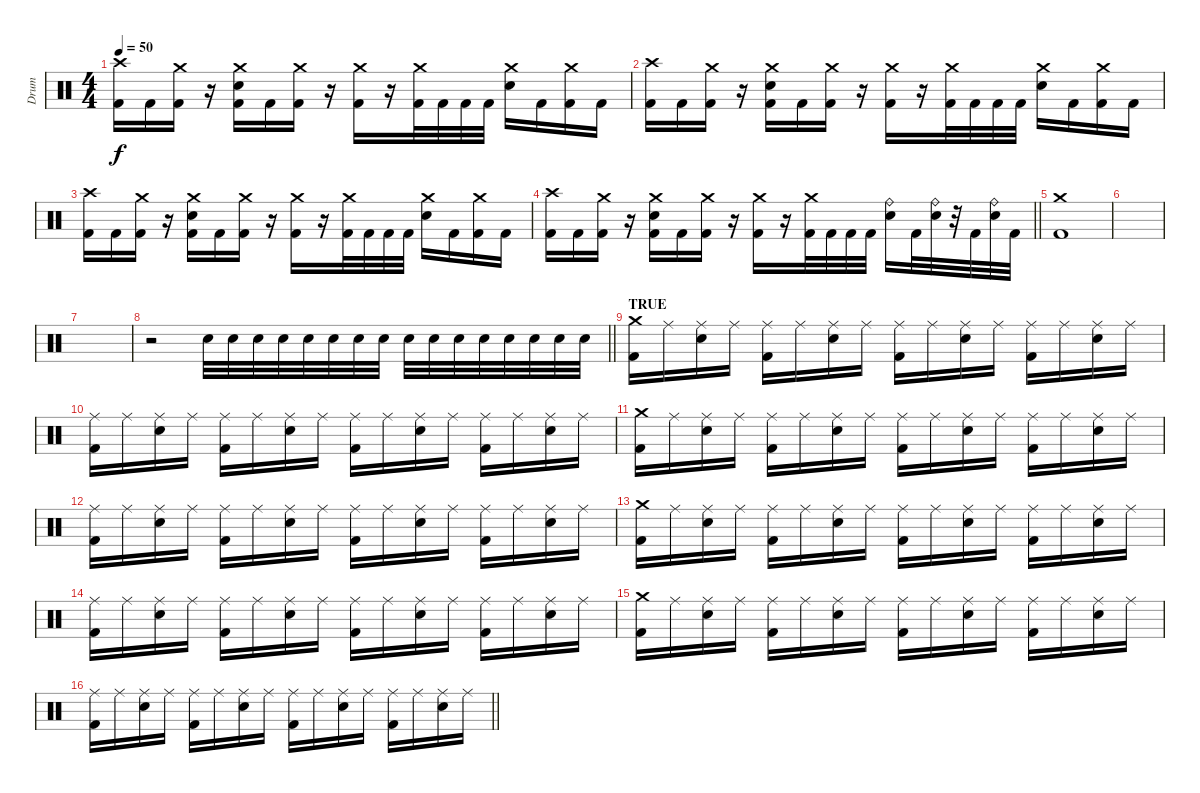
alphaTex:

\track ("Drum " "Drum ") {instrument percussion}
\staff {score}
\articulation defaults
\ts (4 4)
\tempo 50
\clef neutral
\ks c
("Crash high (hit)" "Kick (hit) 2").16{dy f} "Kick (hit) 2".16 ("Crash medium (hit)" "Kick (hit) 2").16 r.16 ("Crash medium (hit)" "Snare (hit) 2" "Kick (hit) 2").16 "Kick (hit) 2".16 ("Crash medium (hit)" "Kick (hit) 2").16 r.16 ("Crash medium (hit)" "Kick (hit) 2").16 r.16 ("Crash medium (hit)" "Kick (hit) 2").32 "Kick (hit) 2".32 "Kick (hit) 2".32 "Kick (hit) 2".32 ("Crash medium (hit)" "Snare (hit) 2").16 "Kick (hit) 2".16 ("Crash medium (hit)" "Kick (hit) 2").16 "Kick (hit) 2".16 |
("Crash high (hit)" "Kick (hit) 2").16 "Kick (hit) 2".16 ("Crash medium (hit)" "Kick (hit) 2").16 r.16 ("Crash medium (hit)" "Snare (hit) 2" "Kick (hit) 2").16 "Kick (hit) 2".16 ("Crash medium (hit)" "Kick (hit) 2").16 r.16 ("Crash medium (hit)" "Kick (hit) 2").16 r.16 ("Crash medium (hit)" "Kick (hit) 2").32 "Kick (hit) 2".32 "Kick (hit) 2".32 "Kick (hit) 2".32 ("Crash medium (hit)" "Snare (hit) 2").16 "Kick (hit) 2".16 ("Crash medium (hit)" "Kick (hit) 2").16 "Kick (hit) 2".16 |
("Crash high (hit)" "Kick (hit) 2").16 "Kick (hit) 2".16 ("Crash medium (hit)" "Kick (hit) 2").16 r.16 ("Crash medium (hit)" "Snare (hit) 2" "Kick (hit) 2").16 "Kick (hit) 2".16 ("Crash medium (hit)" "Kick (hit) 2").16 r.16 ("Crash medium (hit)" "Kick (hit) 2").16 r.16 ("Crash medium (hit)" "Kick (hit) 2").32 "Kick (hit) 2".32 "Kick (hit) 2".32 "Kick (hit) 2".32 ("Crash medium (hit)" "Snare (hit) 2").16 "Kick (hit) 2".16 ("Crash medium (hit)" "Kick (hit) 2").16 "Kick (hit) 2".16 |
\barLineRight lightlight
("Crash high (hit)" "Kick (hit) 2").16 "Kick (hit) 2".16 ("Crash medium (hit)" "Kick (hit) 2").16 r.16 ("Crash medium (hit)" "Snare (hit) 2" "Kick (hit) 2").16 "Kick (hit) 2".16 ("Crash medium (hit)" "Kick (hit) 2").16 r.16 ("Crash medium (hit)" "Kick (hit) 2").16 r.16 ("Crash medium (hit)" "Kick (hit) 2").32 "Kick (hit) 2".32 "Kick (hit) 2".32 "Kick (hit) 2".32 ("Ride (bell)" "Snare (hit) 2").16 "Kick (hit) 2".32 ("Ride (bell)" "Snare (hit) 2").32 r.32 "Kick (hit) 2".32 ("Ride (bell)" "Snare (hit) 2").32 "Kick (hit) 2".32 |
("Crash medium (hit)" "Kick (hit) 2").1 |
|
|
\barLineRight lightlight
r.2 "Snare (hit) 2".32 "Snare (hit) 2".32 "Snare (hit) 2".32 "Snare (hit) 2".32 "Snare (hit) 2".32 "Snare (hit) 2".32 "Snare (hit) 2".32 "Snare (hit) 2".32 "Snare (hit) 2".32 "Snare (hit) 2".32 "Snare (hit) 2".32 "Snare (hit) 2".32 "Snare (hit) 2".32 "Snare (hit) 2".32 "Snare (hit) 2".32 "Snare (hit) 2".32 |
\section ("" "TRUE")
("Crash medium (hit)" "Kick (hit) 2").16 "Ride (middle)".16 ("Ride (middle)" "Snare (hit) 2").16 "Ride (middle)".16 ("Ride (middle)" "Kick (hit) 2").16 "Ride (middle)".16 ("Ride (middle)" "Snare (hit) 2").16 "Ride (middle)".16 ("Ride (middle)" "Kick (hit) 2").16 "Ride (middle)".16 ("Ride (middle)" "Snare (hit) 2").16 "Ride (middle)".16 ("Ride (middle)" "Kick (hit) 2").16 "Ride (middle)".16 ("Ride (middle)" "Snare (hit) 2").16 "Ride (middle)".16 |
("Ride (middle)" "Kick (hit) 2").16 "Ride (middle)".16 ("Ride (middle)" "Snare (hit) 2").16 "Ride (middle)".16 ("Ride (middle)" "Kick (hit) 2").16 "Ride (middle)".16 ("Ride (middle)" "Snare (hit) 2").16 "Ride (middle)".16 ("Ride (middle)" "Kick (hit) 2").16 "Ride (middle)".16 ("Ride (middle)" "Snare (hit) 2").16 "Ride (middle)".16 ("Ride (middle)" "Kick (hit) 2").16 "Ride (middle)".16 ("Ride (middle)" "Snare (hit) 2").16 "Ride (middle)".16 |
("Crash medium (hit)" "Kick (hit) 2").16 "Ride (middle)".16 ("Ride (middle)" "Snare (hit) 2").16 "Ride (middle)".16 ("Ride (middle)" "Kick (hit) 2").16 "Ride (middle)".16 ("Ride (middle)" "Snare (hit) 2").16 "Ride (middle)".16 ("Ride (middle)" "Kick (hit) 2").16 "Ride (middle)".16 ("Ride (middle)" "Snare (hit) 2").16 "Ride (middle)".16 ("Ride (middle)" "Kick (hit) 2").16 "Ride (middle)".16 ("Ride (middle)" "Snare (hit) 2").16 "Ride (middle)".16 |
("Ride (middle)" "Kick (hit) 2").16 "Ride (middle)".16 ("Ride (middle)" "Snare (hit) 2").16 "Ride (middle)".16 ("Ride (middle)" "Kick (hit) 2").16 "Ride (middle)".16 ("Ride (middle)" "Snare (hit) 2").16 "Ride (middle)".16 ("Ride (middle)" "Kick (hit) 2").16 "Ride (middle)".16 ("Ride (middle)" "Snare (hit) 2").16 "Ride (middle)".16 ("Ride (middle)" "Kick (hit) 2").16 "Ride (middle)".16 ("Ride (middle)" "Snare (hit) 2").16 "Ride (middle)".16 |
("Crash medium (hit)" "Kick (hit) 2").16 "Ride (middle)".16 ("Ride (middle)" "Snare (hit) 2").16 "Ride (middle)".16 ("Ride (middle)" "Kick (hit) 2").16 "Ride (middle)".16 ("Ride (middle)" "Snare (hit) 2").16 "Ride (middle)".16 ("Ride (middle)" "Kick (hit) 2").16 "Ride (middle)".16 ("Ride (middle)" "Snare (hit) 2").16 "Ride (middle)".16 ("Ride (middle)" "Kick (hit) 2").16 "Ride (middle)".16 ("Ride (middle)" "Snare (hit) 2").16 "Ride (middle)".16 |
("Ride (middle)" "Kick (hit) 2").16 "Ride (middle)".16 ("Ride (middle)" "Snare (hit) 2").16 "Ride (middle)".16 ("Ride (middle)" "Kick (hit) 2").16 "Ride (middle)".16 ("Ride (middle)" "Snare (hit) 2").16 "Ride (middle)".16 ("Ride (middle)" "Kick (hit) 2").16 "Ride (middle)".16 ("Ride (middle)" "Snare (hit) 2").16 "Ride (middle)".16 ("Ride (middle)" "Kick (hit) 2").16 "Ride (middle)".16 ("Ride (middle)" "Snare (hit) 2").16 "Ride (middle)".16 |
("Crash medium (hit)" "Kick (hit) 2").16 "Ride (middle)".16 ("Ride (middle)" "Snare (hit) 2").16 "Ride (middle)".16 ("Ride (middle)" "Kick (hit) 2").16 "Ride (middle)".16 ("Ride (middle)" "Snare (hit) 2").16 "Ride (middle)".16 ("Ride (middle)" "Kick (hit) 2").16 "Ride (middle)".16 ("Ride (middle)" "Snare (hit) 2").16 "Ride (middle)".16 ("Ride (middle)" "Kick (hit) 2").16 "Ride (middle)".16 ("Ride (middle)" "Snare (hit) 2").16 "Ride (middle)".16 |
\barLineRight lightlight
("Ride (middle)" "Kick (hit) 2").16 "Ride (middle)".16 ("Ride (middle)" "Snare (hit) 2").16 "Ride (middle)".16 ("Ride (middle)" "Kick (hit) 2").16 "Ride (middle)".16 ("Ride (middle)" "Snare (hit) 2").16 "Ride (middle)".16 ("Ride (middle)" "Kick (hit) 2").16 "Ride (middle)".16 ("Ride (middle)" "Snare (hit) 2").16 "Ride (middle)".16 ("Ride (middle)" "Kick (hit) 2").16 "Ride (middle)".16 ("Ride (middle)" "Snare (hit) 2").16 "Ride (middle)".16
